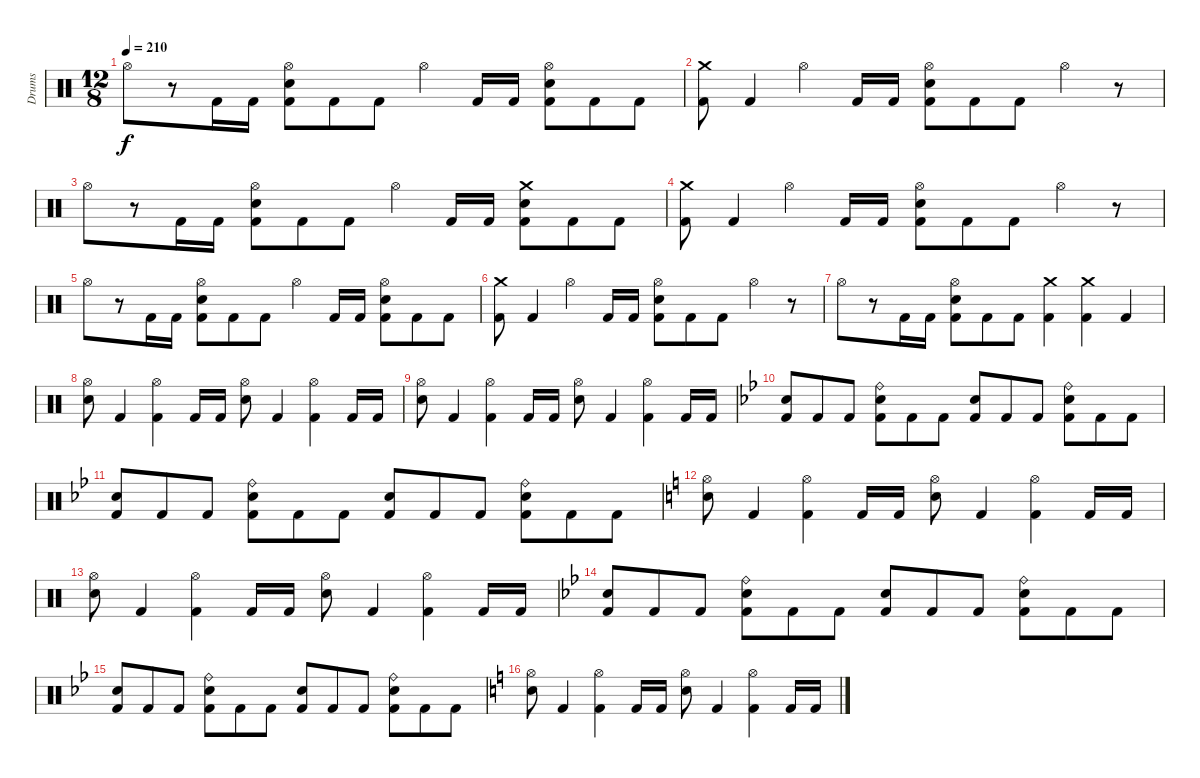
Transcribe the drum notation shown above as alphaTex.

\track ("Drums" "Drums") {instrument percussion}
\staff {score}
\articulation defaults
\ts (12 8)
\tempo 210
\clef neutral
\ks c "Hi-Hat (open)".8{dy f}
r.8 "Kick (hit) 2".16 "Kick (hit) 2".16 ("Hi-Hat (open)" "Snare (hit) 2" "Kick (hit) 2").8 "Kick (hit) 2".8 "Kick (hit) 2".8 "Hi-Hat (open)".4 "Kick (hit) 2".16 "Kick (hit) 2".16 ("Hi-Hat (open)" "Snare (hit) 2" "Kick (hit) 2").8 "Kick (hit) 2".8 "Kick (hit) 2".8 |
("Crash medium (hit)" "Kick (hit) 2").8 "Kick (hit) 2".4 "Hi-Hat (open)".4 "Kick (hit) 2".16 "Kick (hit) 2".16 ("Hi-Hat (open)" "Snare (hit) 2" "Kick (hit) 2").8 "Kick (hit) 2".8 "Kick (hit) 2".8 "Hi-Hat (open)".4 r.8 |
"Hi-Hat (open)".8 r.8 "Kick (hit) 2".16 "Kick (hit) 2".16 ("Hi-Hat (open)" "Snare (hit) 2" "Kick (hit) 2").8 "Kick (hit) 2".8 "Kick (hit) 2".8 "Hi-Hat (open)".4 "Kick (hit) 2".16 "Kick (hit) 2".16 ("Crash medium (hit)" "Snare (hit) 2" "Kick (hit) 2").8 "Kick (hit) 2".8 "Kick (hit) 2".8 |
("Crash medium (hit)" "Kick (hit) 2").8 "Kick (hit) 2".4 "Hi-Hat (open)".4 "Kick (hit) 2".16 "Kick (hit) 2".16 ("Hi-Hat (open)" "Snare (hit) 2" "Kick (hit) 2").8 "Kick (hit) 2".8 "Kick (hit) 2".8 "Hi-Hat (open)".4 r.8 |
"Hi-Hat (open)".8 r.8 "Kick (hit) 2".16 "Kick (hit) 2".16 ("Hi-Hat (open)" "Snare (hit) 2" "Kick (hit) 2").8 "Kick (hit) 2".8 "Kick (hit) 2".8 "Hi-Hat (open)".4 "Kick (hit) 2".16 "Kick (hit) 2".16 ("Hi-Hat (open)" "Snare (hit) 2" "Kick (hit) 2").8 "Kick (hit) 2".8 "Kick (hit) 2".8 |
("Crash medium (hit)" "Kick (hit) 2").8 "Kick (hit) 2".4 "Hi-Hat (open)".4 "Kick (hit) 2".16 "Kick (hit) 2".16 ("Hi-Hat (open)" "Snare (hit) 2" "Kick (hit) 2").8 "Kick (hit) 2".8 "Kick (hit) 2".8 "Hi-Hat (open)".4 r.8 |
"Hi-Hat (open)".8 r.8 "Kick (hit) 2".16 "Kick (hit) 2".16 ("Hi-Hat (open)" "Snare (hit) 2" "Kick (hit) 2").8 "Kick (hit) 2".8 "Kick (hit) 2".8 ("Crash medium (hit)" "Kick (hit) 2").4 ("Crash medium (hit)" "Kick (hit) 2").4 "Kick (hit) 2".4 |
("Hi-Hat (open)" "Snare (hit) 2").8 "Kick (hit) 2".4 ("Hi-Hat (open)" "Kick (hit) 2").4 "Kick (hit) 2".16 "Kick (hit) 2".16 ("Hi-Hat (open)" "Snare (hit) 2").8 "Kick (hit) 2".4 ("Hi-Hat (open)" "Kick (hit) 2").4 "Kick (hit) 2".16 "Kick (hit) 2".16 |
("Hi-Hat (open)" "Snare (hit) 2").8 "Kick (hit) 2".4 ("Hi-Hat (open)" "Kick (hit) 2").4 "Kick (hit) 2".16 "Kick (hit) 2".16 ("Hi-Hat (open)" "Snare (hit) 2").8 "Kick (hit) 2".4 ("Hi-Hat (open)" "Kick (hit) 2").4 "Kick (hit) 2".16 "Kick (hit) 2".16 |
\ks bb
("Snare (hit) 2" "Kick (hit) 2").8 "Kick (hit) 2".8 "Kick (hit) 2".8 ("Ride (bell)" "Snare (hit) 2" "Kick (hit) 2").8 "Kick (hit) 2".8 "Kick (hit) 2".8 ("Snare (hit) 2" "Kick (hit) 2").8 "Kick (hit) 2".8 "Kick (hit) 2".8 ("Ride (bell)" "Snare (hit) 2" "Kick (hit) 2").8 "Kick (hit) 2".8 "Kick (hit) 2".8 |
("Snare (hit) 2" "Kick (hit) 2").8 "Kick (hit) 2".8 "Kick (hit) 2".8 ("Ride (bell)" "Snare (hit) 2" "Kick (hit) 2").8 "Kick (hit) 2".8 "Kick (hit) 2".8 ("Snare (hit) 2" "Kick (hit) 2").8 "Kick (hit) 2".8 "Kick (hit) 2".8 ("Ride (bell)" "Snare (hit) 2" "Kick (hit) 2").8 "Kick (hit) 2".8 "Kick (hit) 2".8 |
\ks c
("Hi-Hat (open)" "Snare (hit) 2").8 "Kick (hit) 2".4 ("Hi-Hat (open)" "Kick (hit) 2").4 "Kick (hit) 2".16 "Kick (hit) 2".16 ("Hi-Hat (open)" "Snare (hit) 2").8 "Kick (hit) 2".4 ("Hi-Hat (open)" "Kick (hit) 2").4 "Kick (hit) 2".16 "Kick (hit) 2".16 |
("Hi-Hat (open)" "Snare (hit) 2").8 "Kick (hit) 2".4 ("Hi-Hat (open)" "Kick (hit) 2").4 "Kick (hit) 2".16 "Kick (hit) 2".16 ("Hi-Hat (open)" "Snare (hit) 2").8 "Kick (hit) 2".4 ("Hi-Hat (open)" "Kick (hit) 2").4 "Kick (hit) 2".16 "Kick (hit) 2".16 |
\ks bb
("Snare (hit) 2" "Kick (hit) 2").8 "Kick (hit) 2".8 "Kick (hit) 2".8 ("Ride (bell)" "Snare (hit) 2" "Kick (hit) 2").8 "Kick (hit) 2".8 "Kick (hit) 2".8 ("Snare (hit) 2" "Kick (hit) 2").8 "Kick (hit) 2".8 "Kick (hit) 2".8 ("Ride (bell)" "Snare (hit) 2" "Kick (hit) 2").8 "Kick (hit) 2".8 "Kick (hit) 2".8 |
("Snare (hit) 2" "Kick (hit) 2").8 "Kick (hit) 2".8 "Kick (hit) 2".8 ("Ride (bell)" "Snare (hit) 2" "Kick (hit) 2").8 "Kick (hit) 2".8 "Kick (hit) 2".8 ("Snare (hit) 2" "Kick (hit) 2").8 "Kick (hit) 2".8 "Kick (hit) 2".8 ("Ride (bell)" "Snare (hit) 2" "Kick (hit) 2").8 "Kick (hit) 2".8 "Kick (hit) 2".8 |
\ks c
("Hi-Hat (open)" "Snare (hit) 2").8 "Kick (hit) 2".4 ("Hi-Hat (open)" "Kick (hit) 2").4 "Kick (hit) 2".16 "Kick (hit) 2".16 ("Hi-Hat (open)" "Snare (hit) 2").8 "Kick (hit) 2".4 ("Hi-Hat (open)" "Kick (hit) 2").4 "Kick (hit) 2".16 "Kick (hit) 2".16
